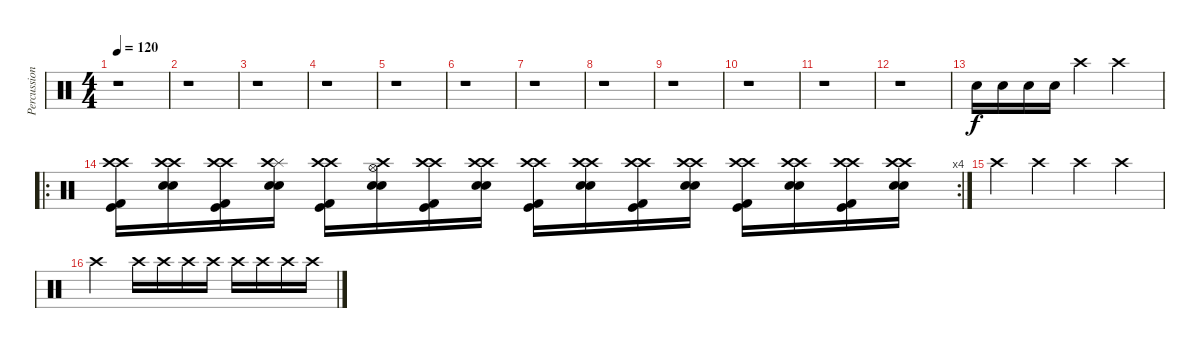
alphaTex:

\track ("Percussion" "Percussion") {instrument percussion}
\staff {score}
\articulation defaults
\ts (4 4)
\tempo 120
\clef neutral
\ks c
r.1{dy f} |
r.1 |
r.1 |
r.1 |
r.1 |
r.1 |
r.1 |
r.1 |
r.1 |
r.1 |
r.1 |
r.1 |
"Electric Snare (hit)".16 "Snare (hit) 2".16 "Electric Snare (hit)".16 "Snare (hit) 2".16 "Crash high (hit)".4 "Crash high (hit)".2 |
\ro
\rc 4
("Crash high (hit)" "Crash high (hit)" "Kick (hit)" "Kick (hit) 2").16 ("Crash high (hit)" "Crash high (hit)" "Snare (hit) 2" "Electric Snare (hit)").16 ("Crash high (hit)" "Crash high (hit)" "Kick (hit)" "Kick (hit) 2").16 ("Splash (hit)" "Crash high (hit)" "Snare (hit) 2" "Electric Snare (hit)").16 ("Crash high (hit)" "Crash high (hit)" "Kick (hit)" "Kick (hit) 2").16 ("Crash high (hit)" "Hi-Hat (open)" "Electric Snare (hit)" "Snare (hit) 2").16 ("Crash high (hit)" "Crash high (hit)" "Kick (hit)" "Kick (hit) 2").16 ("Crash high (hit)" "Crash high (hit)" "Electric Snare (hit)" "Snare (hit) 2").16 ("Crash high (hit)" "Crash high (hit)" "Kick (hit)" "Kick (hit) 2").16 ("Crash high (hit)" "Crash high (hit)" "Snare (hit) 2" "Electric Snare (hit)").16 ("Crash high (hit)" "Crash high (hit)" "Kick (hit)" "Kick (hit) 2").16 ("Crash high (hit)" "Crash high (hit)" "Snare (hit) 2" "Electric Snare (hit)").16 ("Crash high (hit)" "Crash high (hit)" "Kick (hit)" "Kick (hit) 2").16 ("Crash high (hit)" "Crash high (hit)" "Snare (hit) 2" "Electric Snare (hit)").16 ("Crash high (hit)" "Crash high (hit)" "Kick (hit) 2" "Kick (hit)").16 ("Crash high (hit)" "Crash high (hit)" "Snare (hit) 2" "Electric Snare (hit)").16 |
"Crash high (hit)".4 "Crash high (hit)".4 "Crash high (hit)".4 "Crash high (hit)".4 |
"Crash high (hit)".2 "Crash high (hit)".16 "Crash high (hit)".16 "Crash high (hit)".16 "Crash high (hit)".16 "Crash high (hit)".16 "Crash high (hit)".16 "Crash high (hit)".16 "Crash high (hit)".16
